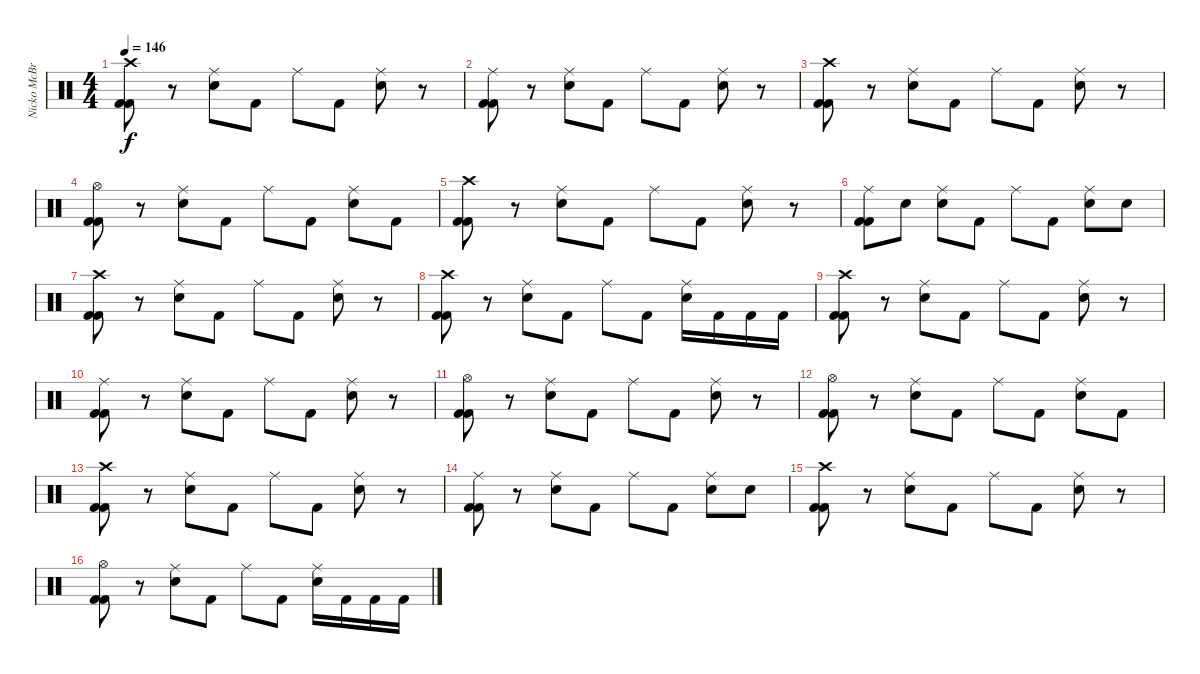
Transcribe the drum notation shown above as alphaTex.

\track ("Nicko McBrain" "Nicko McBr") {instrument percussion}
\staff {score}
\articulation defaults
\ts (4 4)
\tempo 146
\clef neutral
\ks c
("Crash high (hit)" "Kick (hit) 2" "Kick (hit) 2").8{dy f} r.8 ("Ride (middle)" "Snare (hit) 2").8 "Kick (hit) 2".8 "Ride (middle)".8 "Kick (hit) 2".8 ("Ride (middle)" "Snare (hit) 2").8 r.8 |
("Ride (middle)" "Kick (hit) 2" "Kick (hit) 2").8 r.8 ("Ride (middle)" "Snare (hit) 2").8 "Kick (hit) 2".8 "Ride (middle)".8 "Kick (hit) 2".8 ("Ride (middle)" "Snare (hit) 2").8 r.8 |
("Crash high (hit)" "Kick (hit) 2" "Kick (hit) 2").8 r.8 ("Ride (middle)" "Snare (hit) 2").8 "Kick (hit) 2".8 "Ride (middle)".8 "Kick (hit) 2".8 ("Ride (middle)" "Snare (hit) 2").8 r.8 |
("Hi-Hat (open)" "Kick (hit) 2" "Kick (hit) 2").8 r.8 ("Ride (middle)" "Snare (hit) 2").8 "Kick (hit) 2".8 "Ride (middle)".8 "Kick (hit) 2".8 ("Ride (middle)" "Snare (hit) 2").8 "Kick (hit) 2".8 |
("Crash high (hit)" "Kick (hit) 2" "Kick (hit) 2").8 r.8 ("Ride (middle)" "Snare (hit) 2").8 "Kick (hit) 2".8 "Ride (middle)".8 "Kick (hit) 2".8 ("Ride (middle)" "Snare (hit) 2").8 r.8 |
("Ride (middle)" "Kick (hit) 2" "Kick (hit) 2").8 "Snare (hit)".8 ("Ride (middle)" "Snare (hit) 2").8 "Kick (hit) 2".8 "Ride (middle)".8 "Kick (hit) 2".8 ("Ride (middle)" "Snare (hit) 2").8 "Snare (hit) 2".8 |
("Crash high (hit)" "Kick (hit) 2" "Kick (hit) 2").8 r.8 ("Ride (middle)" "Snare (hit) 2").8 "Kick (hit) 2".8 "Ride (middle)".8 "Kick (hit) 2".8 ("Ride (middle)" "Snare (hit) 2").8 r.8 |
("Crash high (hit)" "Kick (hit) 2" "Kick (hit) 2").8 r.8 ("Ride (middle)" "Snare (hit) 2").8 "Kick (hit) 2".8 "Ride (middle)".8 "Kick (hit) 2".8 ("Ride (middle)" "Snare (hit) 2").16 "Kick (hit) 2".16 "Kick (hit) 2".16 "Kick (hit) 2".16 |
("Crash high (hit)" "Kick (hit) 2" "Kick (hit) 2").8 r.8 ("Ride (middle)" "Snare (hit) 2").8 "Kick (hit) 2".8 "Ride (middle)".8 "Kick (hit) 2".8 ("Ride (middle)" "Snare (hit) 2").8 r.8 |
("Ride (middle)" "Kick (hit) 2" "Kick (hit) 2").8 r.8 ("Ride (middle)" "Snare (hit) 2").8 "Kick (hit) 2".8 "Ride (middle)".8 "Kick (hit) 2".8 ("Ride (middle)" "Snare (hit) 2").8 r.8 |
("Hi-Hat (open)" "Kick (hit) 2" "Kick (hit) 2").8 r.8 ("Ride (middle)" "Snare (hit) 2").8 "Kick (hit) 2".8 "Ride (middle)".8 "Kick (hit) 2".8 ("Ride (middle)" "Snare (hit) 2").8 r.8 |
("Hi-Hat (open)" "Kick (hit) 2" "Kick (hit) 2").8 r.8 ("Ride (middle)" "Snare (hit) 2").8 "Kick (hit) 2".8 "Ride (middle)".8 "Kick (hit) 2".8 ("Ride (middle)" "Snare (hit) 2").8 "Kick (hit) 2".8 |
("Crash high (hit)" "Kick (hit) 2" "Kick (hit) 2").8 r.8 ("Ride (middle)" "Snare (hit) 2").8 "Kick (hit) 2".8 "Ride (middle)".8 "Kick (hit) 2".8 ("Ride (middle)" "Snare (hit) 2").8 r.8 |
("Ride (middle)" "Kick (hit) 2" "Kick (hit) 2").8 r.8 ("Ride (middle)" "Snare (hit) 2").8 "Kick (hit) 2".8 "Ride (middle)".8 "Kick (hit) 2".8 ("Ride (middle)" "Snare (hit) 2").8 "Snare (hit) 2".8 |
("Crash high (hit)" "Kick (hit) 2" "Kick (hit) 2").8 r.8 ("Ride (middle)" "Snare (hit) 2").8 "Kick (hit) 2".8 "Ride (middle)".8 "Kick (hit) 2".8 ("Ride (middle)" "Snare (hit) 2").8 r.8 |
("Hi-Hat (open)" "Kick (hit) 2" "Kick (hit) 2").8 r.8 ("Ride (middle)" "Snare (hit) 2").8 "Kick (hit) 2".8 "Ride (middle)".8 "Kick (hit) 2".8 ("Ride (middle)" "Snare (hit) 2").16 "Kick (hit) 2".16 "Kick (hit) 2".16 "Kick (hit) 2".16
